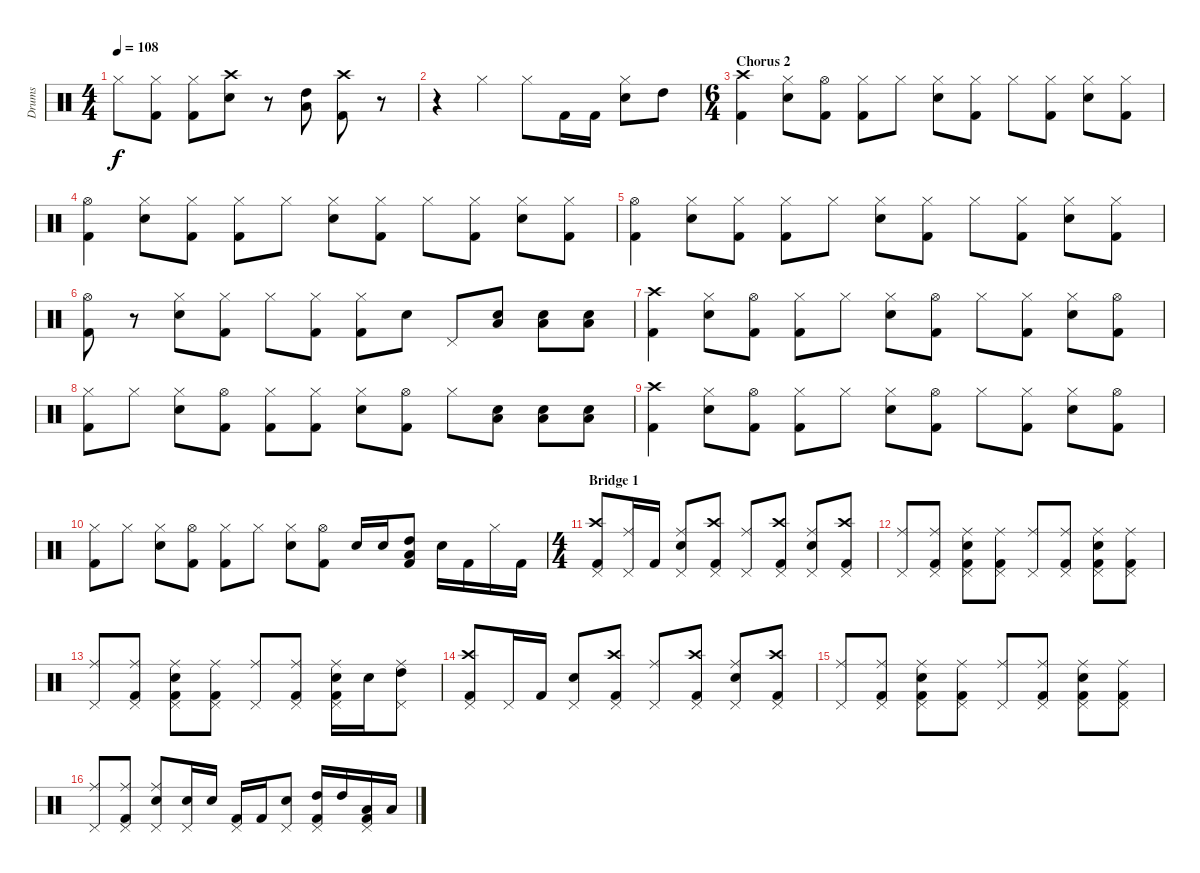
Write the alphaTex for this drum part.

\track ("Drums" "Drums") {instrument percussion}
\staff {score}
\articulation defaults
\ts (4 4)
\tempo 108
\clef neutral
\ks c "Hi-Hat (closed)".8{dy f}
("Hi-Hat (closed)" "Kick (hit) 2").8 ("Hi-Hat (closed)" "Kick (hit) 2").8 ("Crash high (hit)" "Electric Snare (hit)").8 r.8 ("High Tom (hit)" "Low Tom (hit)").8 ("Crash high (hit)" "Kick (hit) 2").8 r.8 |
r.4 "Hi-Hat (closed)".4 "Hi-Hat (closed)".8 "Kick (hit) 2".16 "Kick (hit) 2".16 ("Hi-Hat (closed)" "Electric Snare (hit)").8 "High Tom (hit)".8 |
\ts (6 4)
\section ("" "Chorus 2")
("Crash high (hit)" "Kick (hit) 2").4 ("Hi-Hat (closed)" "Electric Snare (hit)").8 ("Hi-Hat (open)" "Kick (hit) 2").8 ("Hi-Hat (closed)" "Kick (hit) 2").8 "Hi-Hat (closed)".8 ("Hi-Hat (closed)" "Electric Snare (hit)").8 ("Hi-Hat (closed)" "Kick (hit) 2").8 "Hi-Hat (closed)".8 ("Hi-Hat (closed)" "Kick (hit) 2").8 ("Hi-Hat (closed)" "Electric Snare (hit)").8 ("Hi-Hat (closed)" "Kick (hit) 2").8 |
("Hi-Hat (open)" "Kick (hit) 2").4 ("Hi-Hat (closed)" "Electric Snare (hit)").8 ("Hi-Hat (closed)" "Kick (hit) 2").8 ("Hi-Hat (closed)" "Kick (hit) 2").8 "Hi-Hat (closed)".8 ("Hi-Hat (closed)" "Electric Snare (hit)").8 ("Hi-Hat (closed)" "Kick (hit) 2").8 "Hi-Hat (closed)".8 ("Hi-Hat (closed)" "Kick (hit) 2").8 ("Hi-Hat (closed)" "Electric Snare (hit)").8 ("Hi-Hat (closed)" "Kick (hit) 2").8 |
("Hi-Hat (open)" "Kick (hit) 2").4 ("Hi-Hat (closed)" "Electric Snare (hit)").8 ("Hi-Hat (closed)" "Kick (hit) 2").8 ("Hi-Hat (closed)" "Kick (hit) 2").8 "Hi-Hat (closed)".8 ("Hi-Hat (closed)" "Electric Snare (hit)").8 ("Hi-Hat (closed)" "Kick (hit) 2").8 "Hi-Hat (closed)".8 ("Hi-Hat (closed)" "Kick (hit) 2").8 ("Hi-Hat (closed)" "Electric Snare (hit)").8 ("Hi-Hat (closed)" "Kick (hit) 2").8 |
("Hi-Hat (open)" "Kick (hit) 2").8 r.8 ("Hi-Hat (closed)" "Electric Snare (hit)").8 ("Hi-Hat (closed)" "Kick (hit) 2").8 "Hi-Hat (closed)".8 ("Hi-Hat (closed)" "Kick (hit) 2").8 ("Hi-Hat (closed)" "Kick (hit) 2").8 "Electric Snare (hit)".8 "Pedal Hi-Hat (hit)".8 ("Low Tom (hit)" "Electric Snare (hit)").8 ("Low Tom (hit)" "Electric Snare (hit)").8 ("Low Tom (hit)" "Electric Snare (hit)").8 |
("Crash high (hit)" "Kick (hit) 2").4 ("Hi-Hat (closed)" "Electric Snare (hit)").8 ("Hi-Hat (open)" "Kick (hit) 2").8 ("Hi-Hat (closed)" "Kick (hit) 2").8 "Hi-Hat (closed)".8 ("Hi-Hat (closed)" "Electric Snare (hit)").8 ("Hi-Hat (open)" "Kick (hit) 2").8 "Hi-Hat (closed)".8 ("Hi-Hat (closed)" "Kick (hit) 2").8 ("Hi-Hat (closed)" "Electric Snare (hit)").8 ("Hi-Hat (open)" "Kick (hit) 2").8 |
("Hi-Hat (closed)" "Kick (hit) 2").8 "Hi-Hat (closed)".8 ("Hi-Hat (closed)" "Electric Snare (hit)").8 ("Hi-Hat (open)" "Kick (hit) 2").8 ("Hi-Hat (closed)" "Kick (hit) 2").8 ("Hi-Hat (closed)" "Kick (hit) 2").8 ("Hi-Hat (closed)" "Electric Snare (hit)").8 ("Hi-Hat (open)" "Kick (hit) 2").8 "Hi-Hat (closed)".8 ("Low Tom (hit)" "Electric Snare (hit)").8 ("Low Tom (hit)" "Electric Snare (hit)").8 ("Low Tom (hit)" "Electric Snare (hit)").8 |
("Crash high (hit)" "Kick (hit) 2").4 ("Hi-Hat (closed)" "Electric Snare (hit)").8 ("Hi-Hat (open)" "Kick (hit) 2").8 ("Hi-Hat (closed)" "Kick (hit) 2").8 "Hi-Hat (closed)".8 ("Hi-Hat (closed)" "Electric Snare (hit)").8 ("Hi-Hat (open)" "Kick (hit) 2").8 "Hi-Hat (closed)".8 ("Hi-Hat (closed)" "Kick (hit) 2").8 ("Hi-Hat (closed)" "Electric Snare (hit)").8 ("Hi-Hat (open)" "Kick (hit) 2").8 |
("Hi-Hat (closed)" "Kick (hit) 2").8 "Hi-Hat (closed)".8 ("Hi-Hat (closed)" "Electric Snare (hit)").8 ("Hi-Hat (open)" "Kick (hit) 2").8 ("Hi-Hat (closed)" "Kick (hit) 2").8 "Hi-Hat (closed)".8 ("Hi-Hat (closed)" "Electric Snare (hit)").8 ("Hi-Hat (open)" "Kick (hit) 2").8 "Electric Snare (hit)".16 "Electric Snare (hit)".16 ("High Tom (hit)" "Low Tom (hit)" "Kick (hit) 2").8 "Electric Snare (hit)".16 "Kick (hit) 2".16 "Hi-Hat (closed)".16 "Kick (hit) 2".16 |
\ts (4 4)
\section ("" "Bridge 1")
("Crash high (hit)" "Kick (hit) 2" "Pedal Hi-Hat (hit)").8 ("Ride (middle)" "Pedal Hi-Hat (hit)").16 "Kick (hit) 2".16 ("Ride (middle)" "Electric Snare (hit)" "Pedal Hi-Hat (hit)").8 ("Crash high (hit)" "Kick (hit) 2" "Pedal Hi-Hat (hit)").8 ("Ride (middle)" "Pedal Hi-Hat (hit)").8 ("Crash high (hit)" "Kick (hit) 2" "Pedal Hi-Hat (hit)").8 ("Ride (middle)" "Electric Snare (hit)" "Pedal Hi-Hat (hit)").8 ("Crash high (hit)" "Kick (hit) 2" "Pedal Hi-Hat (hit)").8 |
("Ride (middle)" "Pedal Hi-Hat (hit)").8 ("Ride (middle)" "Kick (hit) 2" "Pedal Hi-Hat (hit)").8 ("Ride (middle)" "Electric Snare (hit)" "Kick (hit) 2" "Pedal Hi-Hat (hit)").8 ("Ride (middle)" "Kick (hit) 2" "Pedal Hi-Hat (hit)").8 ("Ride (middle)" "Pedal Hi-Hat (hit)").8 ("Ride (middle)" "Kick (hit) 2" "Pedal Hi-Hat (hit)").8 ("Ride (middle)" "Electric Snare (hit)" "Kick (hit) 2" "Pedal Hi-Hat (hit)").8 ("Ride (middle)" "Kick (hit) 2" "Pedal Hi-Hat (hit)").8 |
("Ride (middle)" "Pedal Hi-Hat (hit)").8 ("Ride (middle)" "Kick (hit) 2" "Pedal Hi-Hat (hit)").8 ("Ride (middle)" "Electric Snare (hit)" "Kick (hit) 2" "Pedal Hi-Hat (hit)").8 ("Ride (middle)" "Kick (hit) 2" "Pedal Hi-Hat (hit)").8 ("Ride (middle)" "Pedal Hi-Hat (hit)").8 ("Ride (middle)" "Kick (hit) 2" "Pedal Hi-Hat (hit)").8 ("Ride (middle)" "Electric Snare (hit)" "Kick (hit) 2" "Pedal Hi-Hat (hit)").16 "Electric Snare (hit)".16 ("Ride (middle)" "High Tom (hit)" "Pedal Hi-Hat (hit)").8 |
("Crash high (hit)" "Kick (hit) 2" "Pedal Hi-Hat (hit)").8 "Pedal Hi-Hat (hit)".16 "Kick (hit) 2".16 ("Electric Snare (hit)" "Pedal Hi-Hat (hit)").8 ("Crash high (hit)" "Kick (hit) 2" "Pedal Hi-Hat (hit)").8 ("Ride (middle)" "Pedal Hi-Hat (hit)").8 ("Crash high (hit)" "Kick (hit) 2" "Pedal Hi-Hat (hit)").8 ("Ride (middle)" "Electric Snare (hit)" "Pedal Hi-Hat (hit)").8 ("Crash high (hit)" "Kick (hit) 2" "Pedal Hi-Hat (hit)").8 |
("Ride (middle)" "Pedal Hi-Hat (hit)").8 ("Ride (middle)" "Kick (hit) 2" "Pedal Hi-Hat (hit)").8 ("Ride (middle)" "Electric Snare (hit)" "Kick (hit) 2" "Pedal Hi-Hat (hit)").8 ("Ride (middle)" "Kick (hit) 2" "Pedal Hi-Hat (hit)").8 ("Ride (middle)" "Pedal Hi-Hat (hit)").8 ("Ride (middle)" "Kick (hit) 2" "Pedal Hi-Hat (hit)").8 ("Ride (middle)" "Electric Snare (hit)" "Kick (hit) 2" "Pedal Hi-Hat (hit)").8 ("Ride (middle)" "Kick (hit) 2" "Pedal Hi-Hat (hit)").8 |
("Ride (middle)" "Pedal Hi-Hat (hit)").8 ("Ride (middle)" "Kick (hit) 2" "Pedal Hi-Hat (hit)").8 ("Ride (middle)" "Electric Snare (hit)" "Pedal Hi-Hat (hit)").8 ("Electric Snare (hit)" "Pedal Hi-Hat (hit)").16 "Electric Snare (hit)".16 ("Kick (hit) 2" "Pedal Hi-Hat (hit)").16 "Kick (hit) 2".16 ("Electric Snare (hit)" "Pedal Hi-Hat (hit)").8 ("High Tom (hit)" "Kick (hit) 2" "Pedal Hi-Hat (hit)").16 "High Tom (hit)".16 ("Low Tom (hit)" "Kick (hit) 2" "Pedal Hi-Hat (hit)").16 "Low Tom (hit)".16
